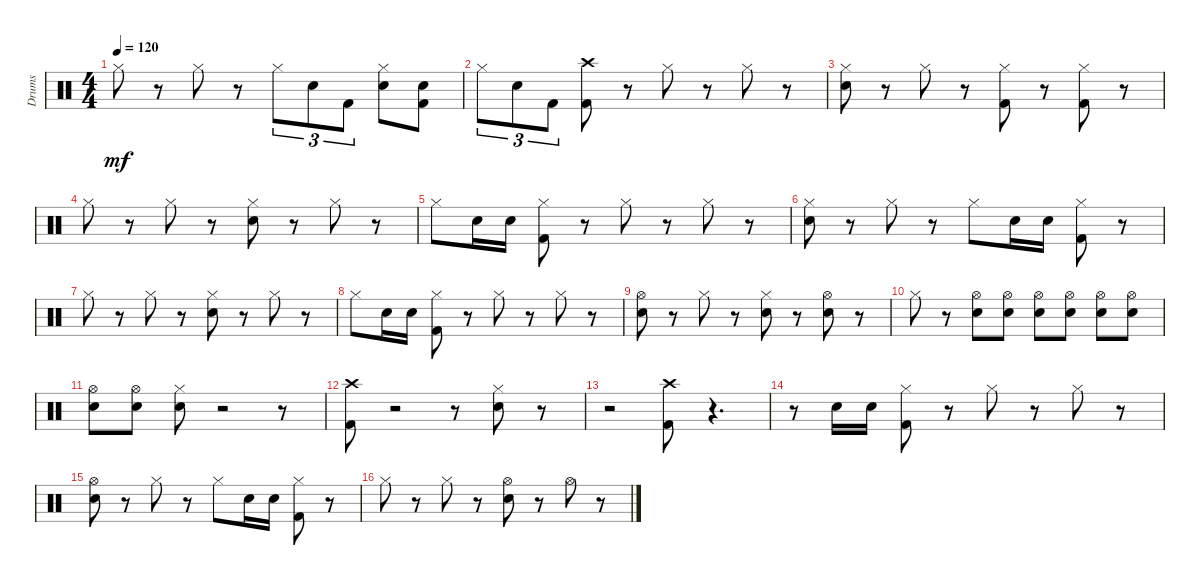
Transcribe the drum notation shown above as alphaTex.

\track ("Drums" "Drums") {instrument percussion}
\staff {score}
\articulation defaults
\ts (4 4)
\tempo 120
\clef neutral
\ks c "Hi-Hat (closed)".8{dy mf}
r.8 "Hi-Hat (closed)".8 r.8 "Hi-Hat (closed)".8{tu (3 2)} "Electric Snare (hit)".8{tu (3 2)} "Kick (hit) 2".8{tu (3 2)} ("Electric Snare (hit)" "Hi-Hat (closed)").8 ("Kick (hit) 2" "Electric Snare (hit)").8 |
"Hi-Hat (closed)".8{tu (3 2)} "Electric Snare (hit)".8{tu (3 2)} "Kick (hit) 2".8{tu (3 2)} ("Kick (hit) 2" "Crash high (hit)").8 r.8 "Hi-Hat (closed)".8 r.8 "Hi-Hat (closed)".8 r.8 |
("Electric Snare (hit)" "Hi-Hat (closed)").8 r.8 "Hi-Hat (closed)".8 r.8 ("Kick (hit) 2" "Hi-Hat (closed)").8 r.8 ("Kick (hit) 2" "Hi-Hat (closed)").8 r.8 |
"Hi-Hat (closed)".8 r.8 "Hi-Hat (closed)".8 r.8 ("Electric Snare (hit)" "Hi-Hat (closed)").8 r.8 "Hi-Hat (closed)".8 r.8 |
"Hi-Hat (closed)".8 "Electric Snare (hit)".16 "Electric Snare (hit)".16 ("Kick (hit) 2" "Hi-Hat (closed)").8 r.8 "Hi-Hat (closed)".8 r.8 "Hi-Hat (closed)".8 r.8 |
("Electric Snare (hit)" "Hi-Hat (closed)").8 r.8 "Hi-Hat (closed)".8 r.8 "Hi-Hat (closed)".8 "Electric Snare (hit)".16 "Electric Snare (hit)".16 ("Kick (hit) 2" "Hi-Hat (closed)").8 r.8 |
"Hi-Hat (closed)".8 r.8 "Hi-Hat (closed)".8 r.8 ("Electric Snare (hit)" "Hi-Hat (closed)").8 r.8 "Hi-Hat (closed)".8 r.8 |
"Hi-Hat (closed)".8 "Electric Snare (hit)".16 "Electric Snare (hit)".16 ("Kick (hit) 2" "Hi-Hat (closed)").8 r.8 "Hi-Hat (closed)".8 r.8 "Hi-Hat (closed)".8 r.8 |
("Electric Snare (hit)" "Hi-Hat (open)").8 r.8 "Hi-Hat (closed)".8 r.8 ("Electric Snare (hit)" "Hi-Hat (closed)").8 r.8 ("Electric Snare (hit)" "Hi-Hat (open)").8 r.8 |
"Hi-Hat (closed)".8 r.8 ("Electric Snare (hit)" "Hi-Hat (open)").8 ("Electric Snare (hit)" "Hi-Hat (open)").8 ("Electric Snare (hit)" "Hi-Hat (open)").8 ("Electric Snare (hit)" "Hi-Hat (open)").8 ("Electric Snare (hit)" "Hi-Hat (open)").8 ("Electric Snare (hit)" "Hi-Hat (open)").8 |
("Electric Snare (hit)" "Hi-Hat (open)").8 ("Electric Snare (hit)" "Hi-Hat (open)").8 ("Electric Snare (hit)" "Hi-Hat (closed)").8 r.2 r.8 |
("Kick (hit) 2" "Crash high (hit)").8 r.2 r.8 ("Electric Snare (hit)" "Hi-Hat (closed)").8 r.8 |
r.2 ("Kick (hit) 2" "Crash high (hit)").8 r.4{d} |
r.8 "Electric Snare (hit)".16 "Electric Snare (hit)".16 ("Kick (hit) 2" "Hi-Hat (closed)").8 r.8 "Hi-Hat (closed)".8 r.8 "Hi-Hat (closed)".8 r.8 |
("Electric Snare (hit)" "Hi-Hat (open)").8 r.8 "Hi-Hat (closed)".8 r.8 "Hi-Hat (closed)".8 "Electric Snare (hit)".16 "Electric Snare (hit)".16 ("Kick (hit) 2" "Hi-Hat (closed)").8 r.8 |
"Hi-Hat (closed)".8 r.8 "Hi-Hat (closed)".8 r.8 ("Electric Snare (hit)" "Hi-Hat (open)").8 r.8 "Hi-Hat (open)".8 r.8
